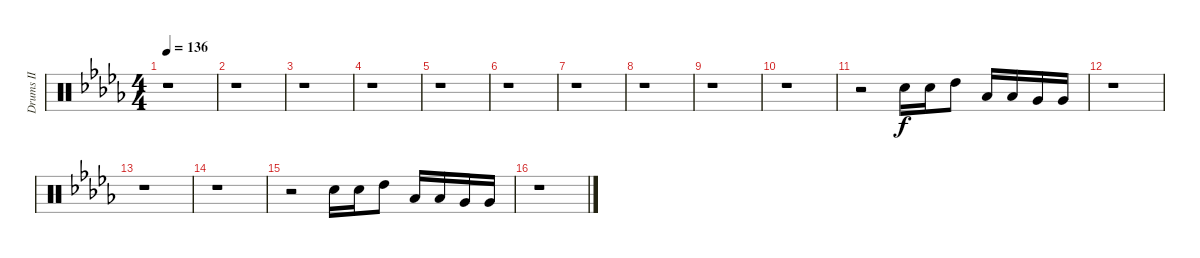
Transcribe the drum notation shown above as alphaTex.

\track ("Drums II" "Drums II") {instrument percussion}
\staff {score}
\articulation defaults
\ts (4 4)
\tempo 136
\clef neutral
\ks db
r.1{dy f} |
r.1 |
r.1 |
r.1 |
r.1 |
r.1 |
r.1 |
r.1 |
r.1 |
r.1 |
r.2 "Snare (hit) 2".16 "Snare (hit) 2".16 "High Tom (hit)".8 "Low Tom (hit)".16 "Low Tom (hit)".16 "Very Low Tom (hit)".16 "Very Low Tom (hit)".16 |
r.1 |
r.1 |
r.1 |
r.2 "Snare (hit) 2".16 "Snare (hit) 2".16 "High Tom (hit)".8 "Low Tom (hit)".16 "Low Tom (hit)".16 "Very Low Tom (hit)".16 "Very Low Tom (hit)".16 |
r.1
